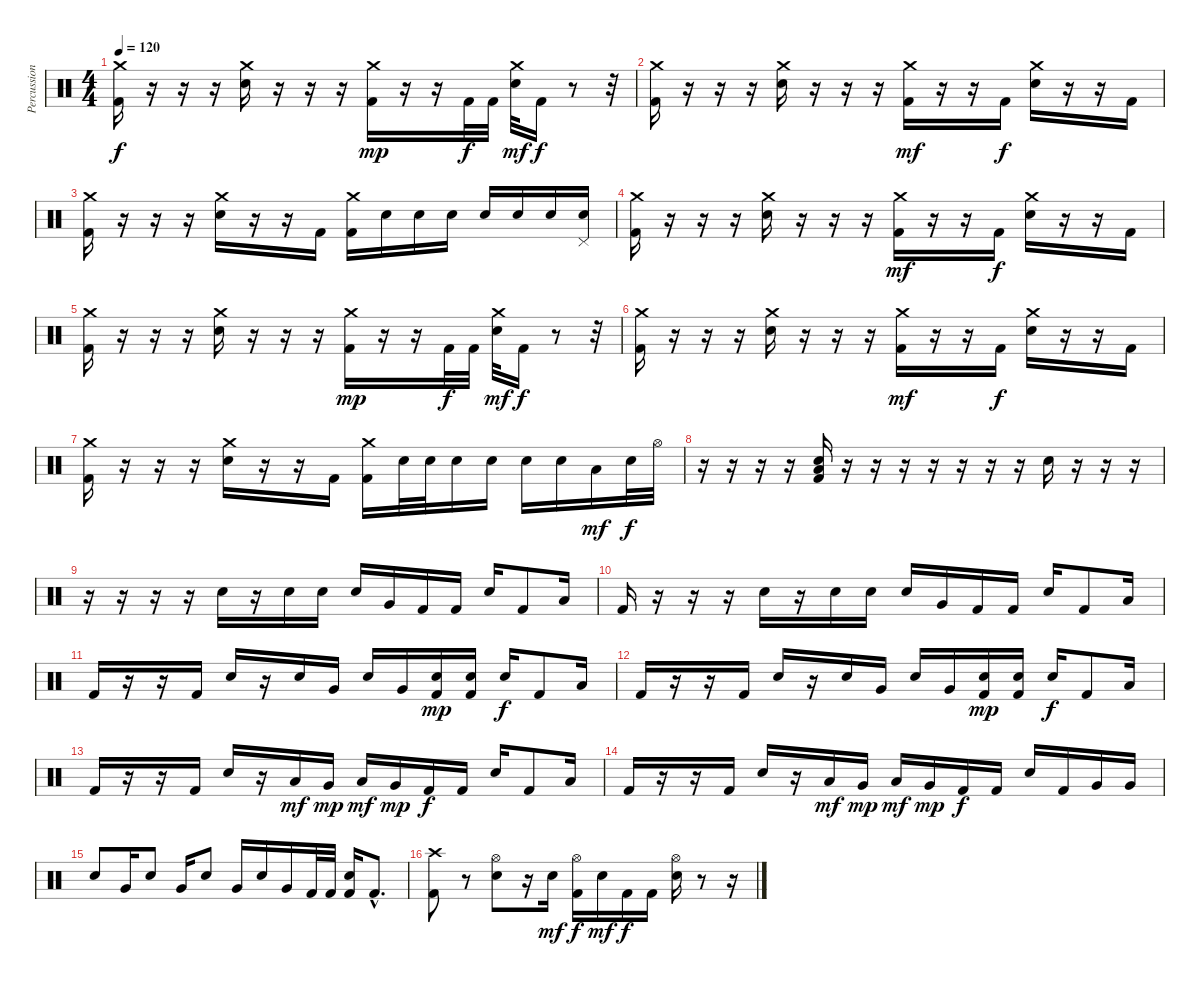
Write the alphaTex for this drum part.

\track ("Percussion" "Percussion") {instrument percussion}
\staff {score}
\articulation defaults
\ts (4 4)
\tempo 120
\clef neutral
\ks c
("Crash medium (hit)" "Kick (hit) 2").16{dy f} r.16 r.16 r.16 ("Crash medium (hit)" "Electric Snare (hit)").16 r.16 r.16 r.16 ("Crash medium (hit)" "Kick (hit) 2").16{dy mp} r.16 r.16 "Kick (hit) 2".32{dy f} "Kick (hit) 2".32 ("Crash medium (hit)" "Electric Snare (hit)").32{dy mf} "Kick (hit) 2".16{dy f} r.8 r.32 |
("Crash medium (hit)" "Kick (hit) 2").16 r.16 r.16 r.16 ("Crash medium (hit)" "Electric Snare (hit)").16 r.16 r.16 r.16 ("Crash medium (hit)" "Kick (hit) 2").16{dy mf} r.16 r.16 "Kick (hit) 2".16{dy f} ("Crash medium (hit)" "Electric Snare (hit)").16 r.16 r.16 "Kick (hit) 2".16 |
("Crash medium (hit)" "Kick (hit) 2").16 r.16 r.16 r.16 ("Crash medium (hit)" "Electric Snare (hit)").16 r.16 r.16 "Kick (hit) 2".16 ("Crash medium (hit)" "Kick (hit) 2").16 "Electric Snare (hit)".16 "Electric Snare (hit)".16 "Electric Snare (hit)".16 "Electric Snare (hit)".16 "Electric Snare (hit)".16 "Electric Snare (hit)".16 ("Pedal Hi-Hat (hit)" "Electric Snare (hit)").16 |
("Crash medium (hit)" "Kick (hit) 2").16 r.16 r.16 r.16 ("Crash medium (hit)" "Electric Snare (hit)").16 r.16 r.16 r.16 ("Crash medium (hit)" "Kick (hit) 2").16{dy mf} r.16 r.16 "Kick (hit) 2".16{dy f} ("Crash medium (hit)" "Electric Snare (hit)").16 r.16 r.16 "Kick (hit) 2".16 |
("Crash medium (hit)" "Kick (hit) 2").16 r.16 r.16 r.16 ("Crash medium (hit)" "Electric Snare (hit)").16 r.16 r.16 r.16 ("Crash medium (hit)" "Kick (hit) 2").16{dy mp} r.16 r.16 "Kick (hit) 2".32{dy f} "Kick (hit) 2".32 ("Crash medium (hit)" "Electric Snare (hit)").32{dy mf} "Kick (hit) 2".16{dy f} r.8 r.32 |
("Crash medium (hit)" "Kick (hit) 2").16 r.16 r.16 r.16 ("Crash medium (hit)" "Electric Snare (hit)").16 r.16 r.16 r.16 ("Crash medium (hit)" "Kick (hit) 2").16{dy mf} r.16 r.16 "Kick (hit) 2".16{dy f} ("Crash medium (hit)" "Electric Snare (hit)").16 r.16 r.16 "Kick (hit) 2".16 |
("Crash medium (hit)" "Kick (hit) 2").16 r.16 r.16 r.16 ("Crash medium (hit)" "Electric Snare (hit)").16 r.16 r.16 "Kick (hit) 2".16 ("Crash medium (hit)" "Kick (hit) 2").16 "Electric Snare (hit)".32 "Electric Snare (hit)".32 "Electric Snare (hit)".16 "Electric Snare (hit)".16 "Electric Snare (hit)".16 "Electric Snare (hit)".16 "Low Floor Tom (hit)".16{dy mf} "Electric Snare (hit)".32{dy f} "Hi-Hat (open)".32 |
r.16 r.16 r.16 r.16 ("Low Floor Tom (hit)" "Kick (hit) 2" "Electric Snare (hit)").16 r.16 r.16 r.16 r.16 r.16 r.16 r.16 "Electric Snare (hit)".16 r.16 r.16 r.16 |
r.16 r.16 r.16 r.16 "Electric Snare (hit)".16 r.16 "Electric Snare (hit)".16 "Electric Snare (hit)".16 "Electric Snare (hit)".16 "Very Low Tom (hit)".16 "Kick (hit) 2".16 "Kick (hit) 2".16 "Electric Snare (hit)".16 "Kick (hit) 2".8 "Low Floor Tom (hit)".16 |
"Kick (hit) 2".16 r.16 r.16 r.16 "Electric Snare (hit)".16 r.16 "Electric Snare (hit)".16 "Electric Snare (hit)".16 "Electric Snare (hit)".16 "Very Low Tom (hit)".16 "Kick (hit) 2".16 "Kick (hit) 2".16 "Electric Snare (hit)".16 "Kick (hit) 2".8 "Low Floor Tom (hit)".16 |
"Kick (hit) 2".16 r.16 r.16 "Kick (hit) 2".16 "Electric Snare (hit)".16 r.16 "Electric Snare (hit)".16 "Very Low Tom (hit)".16 "Electric Snare (hit)".16 "Very Low Tom (hit)".16 ("Electric Snare (hit)" "Kick (hit) 2").16{dy mp} ("Electric Snare (hit)" "Kick (hit) 2").16 "Electric Snare (hit)".16{dy f} "Kick (hit) 2".8 "Low Floor Tom (hit)".16 |
"Kick (hit) 2".16 r.16 r.16 "Kick (hit) 2".16 "Electric Snare (hit)".16 r.16 "Electric Snare (hit)".16 "Very Low Tom (hit)".16 "Electric Snare (hit)".16 "Very Low Tom (hit)".16 ("Electric Snare (hit)" "Kick (hit) 2").16{dy mp} ("Electric Snare (hit)" "Kick (hit) 2").16 "Electric Snare (hit)".16{dy f} "Kick (hit) 2".8 "Low Floor Tom (hit)".16 |
"Kick (hit) 2".16 r.16 r.16 "Kick (hit) 2".16 "Electric Snare (hit)".16 r.16 "Low Tom (hit)".16{dy mf} "Very Low Tom (hit)".16{dy mp} "Low Tom (hit)".16{dy mf} "Very Low Tom (hit)".16{dy mp} "Kick (hit) 2".16{dy f} "Kick (hit) 2".16 "Electric Snare (hit)".16 "Kick (hit) 2".8 "Low Floor Tom (hit)".16 |
"Kick (hit) 2".16 r.16 r.16 "Kick (hit) 2".16 "Electric Snare (hit)".16 r.16 "Low Tom (hit)".16{dy mf} "Very Low Tom (hit)".16{dy mp} "Low Tom (hit)".16{dy mf} "Very Low Tom (hit)".16{dy mp} "Kick (hit) 2".16{dy f} "Kick (hit) 2".16 "Electric Snare (hit)".16 "Kick (hit) 2".16 "Very Low Tom (hit)".16 "Very Low Tom (hit)".16 |
"Electric Snare (hit)".8 "Very Low Tom (hit)".16 "Electric Snare (hit)".8 "Very Low Tom (hit)".16 "Electric Snare (hit)".8 "Very Low Tom (hit)".16 "Electric Snare (hit)".16 "Very Low Tom (hit)".16 "Kick (hit) 2".32 "Kick (hit) 2".32 ("Kick (hit) 2" "Electric Snare (hit)").16 "Kick (hit) 2"{hac}.8{d} |
("Crash high (hit)" "Kick (hit) 2").8 r.8 ("Hi-Hat (open)" "Electric Snare (hit)").8 r.16 "Electric Snare (hit)".16{dy mf} ("Hi-Hat (open)" "Kick (hit) 2").16{dy f} "Electric Snare (hit)".16{dy mf} "Kick (hit) 2".16{dy f} "Kick (hit) 2".16 ("Hi-Hat (open)" "Electric Snare (hit)").16 r.8 r.16
